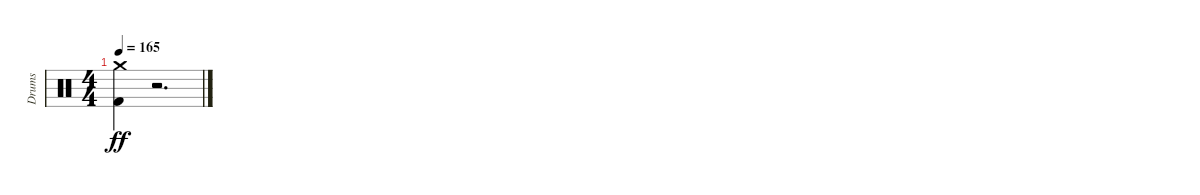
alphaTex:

\track ("Drums" "Drums") {instrument percussion}
\staff {score}
\articulation defaults
\ts (4 4)
\tempo 165
\clef neutral
\ks c
("Crash medium (hit)" "Kick (hit) 2").4{dy ff volume 13} r.2{d volume 0}
